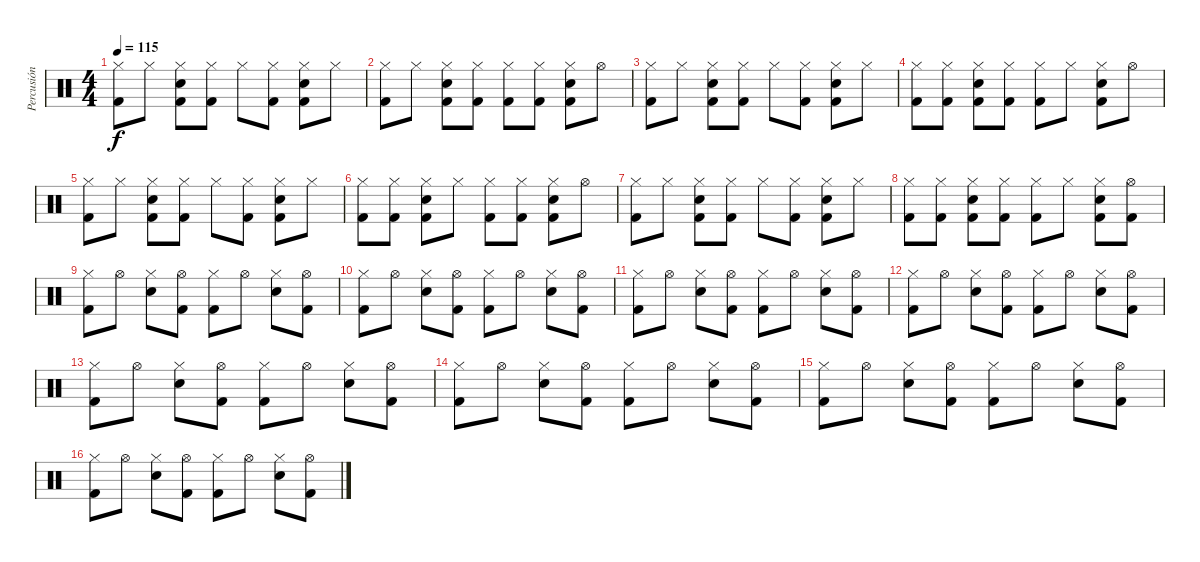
\track ("Percusión" "Percusión") {instrument percussion}
\staff {score}
\articulation defaults
\ts (4 4)
\tempo 115
\clef neutral
\ks c
("Hi-Hat (closed)" "Kick (hit) 2").8{dy f} "Hi-Hat (closed)".8 ("Hi-Hat (closed)" "Electric Snare (hit)" "Kick (hit) 2").8 ("Hi-Hat (closed)" "Kick (hit) 2").8 "Hi-Hat (closed)".8 ("Hi-Hat (closed)" "Kick (hit) 2").8 ("Hi-Hat (closed)" "Electric Snare (hit)" "Kick (hit) 2").8 "Hi-Hat (closed)".8 |
("Hi-Hat (closed)" "Kick (hit) 2").8 "Hi-Hat (closed)".8 ("Hi-Hat (closed)" "Electric Snare (hit)" "Kick (hit) 2").8 ("Hi-Hat (closed)" "Kick (hit) 2").8 ("Hi-Hat (closed)" "Kick (hit) 2").8 ("Hi-Hat (closed)" "Kick (hit) 2").8 ("Hi-Hat (closed)" "Electric Snare (hit)" "Kick (hit) 2").8 "Hi-Hat (open)".8 |
("Hi-Hat (closed)" "Kick (hit) 2").8 "Hi-Hat (closed)".8 ("Hi-Hat (closed)" "Electric Snare (hit)" "Kick (hit) 2").8 ("Hi-Hat (closed)" "Kick (hit) 2").8 "Hi-Hat (closed)".8 ("Hi-Hat (closed)" "Kick (hit) 2").8 ("Hi-Hat (closed)" "Electric Snare (hit)" "Kick (hit) 2").8 "Hi-Hat (closed)".8 |
("Hi-Hat (closed)" "Kick (hit) 2").8 ("Hi-Hat (closed)" "Kick (hit) 2").8 ("Hi-Hat (closed)" "Electric Snare (hit)" "Kick (hit) 2").8 ("Hi-Hat (closed)" "Kick (hit) 2").8 ("Hi-Hat (closed)" "Kick (hit) 2").8 "Hi-Hat (closed)".8 ("Hi-Hat (closed)" "Electric Snare (hit)" "Kick (hit) 2").8 "Hi-Hat (open)".8 |
("Hi-Hat (closed)" "Kick (hit) 2").8 "Hi-Hat (closed)".8 ("Hi-Hat (closed)" "Electric Snare (hit)" "Kick (hit) 2").8 ("Hi-Hat (closed)" "Kick (hit) 2").8 "Hi-Hat (closed)".8 ("Hi-Hat (closed)" "Kick (hit) 2").8 ("Hi-Hat (closed)" "Electric Snare (hit)" "Kick (hit) 2").8 "Hi-Hat (closed)".8 |
("Hi-Hat (closed)" "Kick (hit) 2").8 ("Hi-Hat (closed)" "Kick (hit) 2").8 ("Hi-Hat (closed)" "Electric Snare (hit)" "Kick (hit) 2").8 "Hi-Hat (closed)".8 ("Hi-Hat (closed)" "Kick (hit) 2").8 ("Hi-Hat (closed)" "Kick (hit) 2").8 ("Hi-Hat (closed)" "Electric Snare (hit)" "Kick (hit) 2").8 "Hi-Hat (open)".8 |
("Hi-Hat (closed)" "Kick (hit) 2").8 "Hi-Hat (closed)".8 ("Hi-Hat (closed)" "Electric Snare (hit)" "Kick (hit) 2").8 ("Hi-Hat (closed)" "Kick (hit) 2").8 "Hi-Hat (closed)".8 ("Hi-Hat (closed)" "Kick (hit) 2").8 ("Hi-Hat (closed)" "Electric Snare (hit)" "Kick (hit) 2").8 "Hi-Hat (closed)".8 |
("Hi-Hat (closed)" "Kick (hit) 2").8 ("Hi-Hat (closed)" "Kick (hit) 2").8 ("Hi-Hat (closed)" "Electric Snare (hit)" "Kick (hit) 2").8 ("Hi-Hat (closed)" "Kick (hit) 2").8 ("Hi-Hat (closed)" "Kick (hit) 2").8 "Hi-Hat (closed)".8 ("Hi-Hat (closed)" "Electric Snare (hit)" "Kick (hit) 2").8 ("Hi-Hat (open)" "Kick (hit) 2").8 |
("Hi-Hat (closed)" "Kick (hit) 2").8 "Hi-Hat (open)".8 ("Hi-Hat (closed)" "Electric Snare (hit)").8 ("Hi-Hat (open)" "Kick (hit) 2").8 ("Hi-Hat (closed)" "Kick (hit) 2").8 "Hi-Hat (open)".8 ("Hi-Hat (closed)" "Electric Snare (hit)").8 ("Hi-Hat (open)" "Kick (hit) 2").8 |
("Hi-Hat (closed)" "Kick (hit) 2").8 "Hi-Hat (open)".8 ("Hi-Hat (closed)" "Electric Snare (hit)").8 ("Hi-Hat (open)" "Kick (hit) 2").8 ("Hi-Hat (closed)" "Kick (hit) 2").8 "Hi-Hat (open)".8 ("Hi-Hat (closed)" "Electric Snare (hit)").8 ("Hi-Hat (open)" "Kick (hit) 2").8 |
("Hi-Hat (closed)" "Kick (hit) 2").8 "Hi-Hat (open)".8 ("Hi-Hat (closed)" "Electric Snare (hit)").8 ("Hi-Hat (open)" "Kick (hit) 2").8 ("Hi-Hat (closed)" "Kick (hit) 2").8 "Hi-Hat (open)".8 ("Hi-Hat (closed)" "Electric Snare (hit)").8 ("Hi-Hat (open)" "Kick (hit) 2").8 |
("Hi-Hat (closed)" "Kick (hit) 2").8 "Hi-Hat (open)".8 ("Hi-Hat (closed)" "Electric Snare (hit)").8 ("Hi-Hat (open)" "Kick (hit) 2").8 ("Hi-Hat (closed)" "Kick (hit) 2").8 "Hi-Hat (open)".8 ("Hi-Hat (closed)" "Electric Snare (hit)").8 ("Hi-Hat (open)" "Kick (hit) 2").8 |
("Hi-Hat (closed)" "Kick (hit) 2").8 "Hi-Hat (open)".8 ("Hi-Hat (closed)" "Electric Snare (hit)").8 ("Hi-Hat (open)" "Kick (hit) 2").8 ("Hi-Hat (closed)" "Kick (hit) 2").8 "Hi-Hat (open)".8 ("Hi-Hat (closed)" "Electric Snare (hit)").8 ("Hi-Hat (open)" "Kick (hit) 2").8 |
("Hi-Hat (closed)" "Kick (hit) 2").8 "Hi-Hat (open)".8 ("Hi-Hat (closed)" "Electric Snare (hit)").8 ("Hi-Hat (open)" "Kick (hit) 2").8 ("Hi-Hat (closed)" "Kick (hit) 2").8 "Hi-Hat (open)".8 ("Hi-Hat (closed)" "Electric Snare (hit)").8 ("Hi-Hat (open)" "Kick (hit) 2").8 |
("Hi-Hat (closed)" "Kick (hit) 2").8 "Hi-Hat (open)".8 ("Hi-Hat (closed)" "Electric Snare (hit)").8 ("Hi-Hat (open)" "Kick (hit) 2").8 ("Hi-Hat (closed)" "Kick (hit) 2").8 "Hi-Hat (open)".8 ("Hi-Hat (closed)" "Electric Snare (hit)").8 ("Hi-Hat (open)" "Kick (hit) 2").8 |
("Hi-Hat (closed)" "Kick (hit) 2").8 "Hi-Hat (open)".8 ("Hi-Hat (closed)" "Electric Snare (hit)").8 ("Hi-Hat (open)" "Kick (hit) 2").8 ("Hi-Hat (closed)" "Kick (hit) 2").8 "Hi-Hat (open)".8 ("Hi-Hat (closed)" "Electric Snare (hit)").8 ("Hi-Hat (open)" "Kick (hit) 2").8
